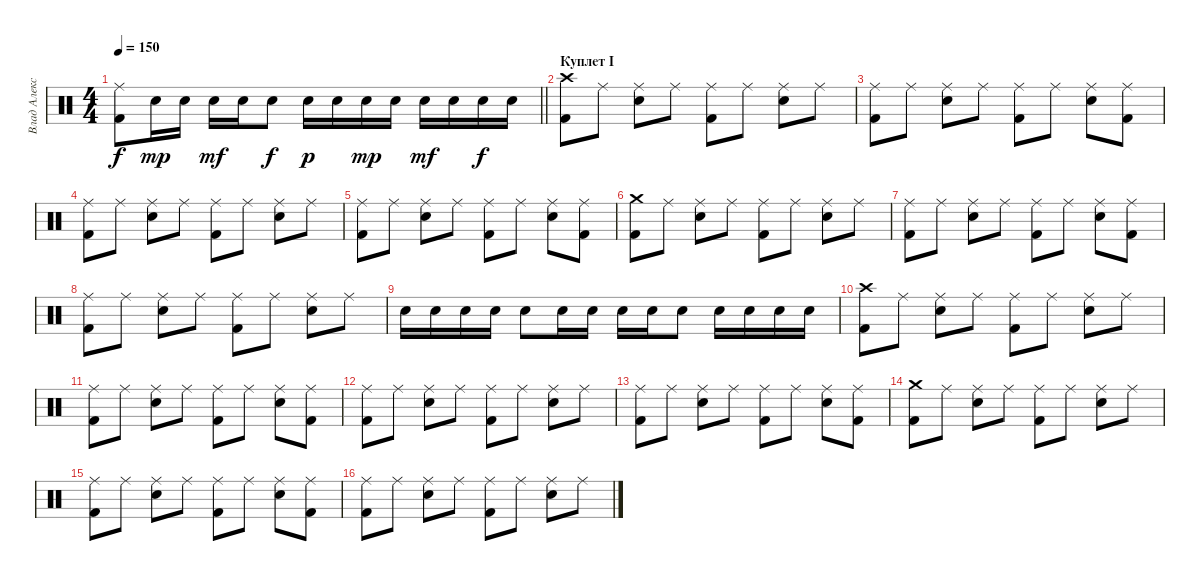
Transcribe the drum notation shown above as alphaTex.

\track ("Влад Алексеенко" "Влад Алекс") {instrument percussion}
\staff {score}
\articulation defaults
\ts (4 4)
\tempo 150
\clef neutral
\barLineRight lightlight
\ks c
("Ride (middle)" "Kick (hit) 2").8{dy f} "Electric Snare (hit)".16{dy mp} "Electric Snare (hit)".16 "Electric Snare (hit)".16{dy mf} "Electric Snare (hit)".16 "Electric Snare (hit)".8{dy f} "Electric Snare (hit)".16{dy p} "Electric Snare (hit)".16 "Electric Snare (hit)".16{dy mp} "Electric Snare (hit)".16 "Electric Snare (hit)".16{dy mf} "Electric Snare (hit)".16 "Electric Snare (hit)".16{dy f} "Electric Snare (hit)".16 |
\section ("" "Куплет I")
("Crash high (hit)" "Kick (hit) 2").8 "Ride (middle)".8 ("Ride (middle)" "Electric Snare (hit)").8 "Ride (middle)".8 ("Ride (middle)" "Kick (hit) 2").8 "Ride (middle)".8 ("Ride (middle)" "Electric Snare (hit)").8 "Ride (middle)".8 |
("Ride (middle)" "Kick (hit) 2").8 "Ride (middle)".8 ("Ride (middle)" "Electric Snare (hit)").8 "Ride (middle)".8 ("Ride (middle)" "Kick (hit) 2").8 "Ride (middle)".8 ("Ride (middle)" "Electric Snare (hit)").8 ("Ride (middle)" "Kick (hit) 2").8 |
("Ride (middle)" "Kick (hit) 2").8 "Ride (middle)".8 ("Ride (middle)" "Electric Snare (hit)").8 "Ride (middle)".8 ("Ride (middle)" "Kick (hit) 2").8 "Ride (middle)".8 ("Ride (middle)" "Electric Snare (hit)").8 "Ride (middle)".8 |
("Ride (middle)" "Kick (hit) 2").8 "Ride (middle)".8 ("Ride (middle)" "Electric Snare (hit)").8 "Ride (middle)".8 ("Ride (middle)" "Kick (hit) 2").8 "Ride (middle)".8 ("Ride (middle)" "Electric Snare (hit)").8 ("Ride (middle)" "Kick (hit) 2").8 |
("Crash medium (hit)" "Kick (hit) 2").8 "Ride (middle)".8 ("Ride (middle)" "Electric Snare (hit)").8 "Ride (middle)".8 ("Ride (middle)" "Kick (hit) 2").8 "Ride (middle)".8 ("Ride (middle)" "Electric Snare (hit)").8 "Ride (middle)".8 |
("Ride (middle)" "Kick (hit) 2").8 "Ride (middle)".8 ("Ride (middle)" "Electric Snare (hit)").8 "Ride (middle)".8 ("Ride (middle)" "Kick (hit) 2").8 "Ride (middle)".8 ("Ride (middle)" "Electric Snare (hit)").8 ("Ride (middle)" "Kick (hit) 2").8 |
("Ride (middle)" "Kick (hit) 2").8 "Ride (middle)".8 ("Ride (middle)" "Electric Snare (hit)").8 "Ride (middle)".8 ("Ride (middle)" "Kick (hit) 2").8 "Ride (middle)".8 ("Ride (middle)" "Electric Snare (hit)").8 "Ride (middle)".8 |
"Electric Snare (hit)".16 "Electric Snare (hit)".16 "Electric Snare (hit)".16 "Electric Snare (hit)".16 "Electric Snare (hit)".8 "Electric Snare (hit)".16 "Electric Snare (hit)".16 "Electric Snare (hit)".16 "Electric Snare (hit)".16 "Electric Snare (hit)".8 "Electric Snare (hit)".16 "Electric Snare (hit)".16 "Electric Snare (hit)".16 "Electric Snare (hit)".16 |
("Crash high (hit)" "Kick (hit) 2").8 "Ride (middle)".8 ("Ride (middle)" "Electric Snare (hit)").8 "Ride (middle)".8 ("Ride (middle)" "Kick (hit) 2").8 "Ride (middle)".8 ("Ride (middle)" "Electric Snare (hit)").8 "Ride (middle)".8 |
("Ride (middle)" "Kick (hit) 2").8 "Ride (middle)".8 ("Ride (middle)" "Electric Snare (hit)").8 "Ride (middle)".8 ("Ride (middle)" "Kick (hit) 2").8 "Ride (middle)".8 ("Ride (middle)" "Electric Snare (hit)").8 ("Ride (middle)" "Kick (hit) 2").8 |
("Ride (middle)" "Kick (hit) 2").8 "Ride (middle)".8 ("Ride (middle)" "Electric Snare (hit)").8 "Ride (middle)".8 ("Ride (middle)" "Kick (hit) 2").8 "Ride (middle)".8 ("Ride (middle)" "Electric Snare (hit)").8 "Ride (middle)".8 |
("Ride (middle)" "Kick (hit) 2").8 "Ride (middle)".8 ("Ride (middle)" "Electric Snare (hit)").8 "Ride (middle)".8 ("Ride (middle)" "Kick (hit) 2").8 "Ride (middle)".8 ("Ride (middle)" "Electric Snare (hit)").8 ("Ride (middle)" "Kick (hit) 2").8 |
("Crash medium (hit)" "Kick (hit) 2").8 "Ride (middle)".8 ("Ride (middle)" "Electric Snare (hit)").8 "Ride (middle)".8 ("Ride (middle)" "Kick (hit) 2").8 "Ride (middle)".8 ("Ride (middle)" "Electric Snare (hit)").8 "Ride (middle)".8 |
("Ride (middle)" "Kick (hit) 2").8 "Ride (middle)".8 ("Ride (middle)" "Electric Snare (hit)").8 "Ride (middle)".8 ("Ride (middle)" "Kick (hit) 2").8 "Ride (middle)".8 ("Ride (middle)" "Electric Snare (hit)").8 ("Ride (middle)" "Kick (hit) 2").8 |
("Ride (middle)" "Kick (hit) 2").8 "Ride (middle)".8 ("Ride (middle)" "Electric Snare (hit)").8 "Ride (middle)".8 ("Ride (middle)" "Kick (hit) 2").8 "Ride (middle)".8 ("Ride (middle)" "Electric Snare (hit)").8 "Ride (middle)".8
